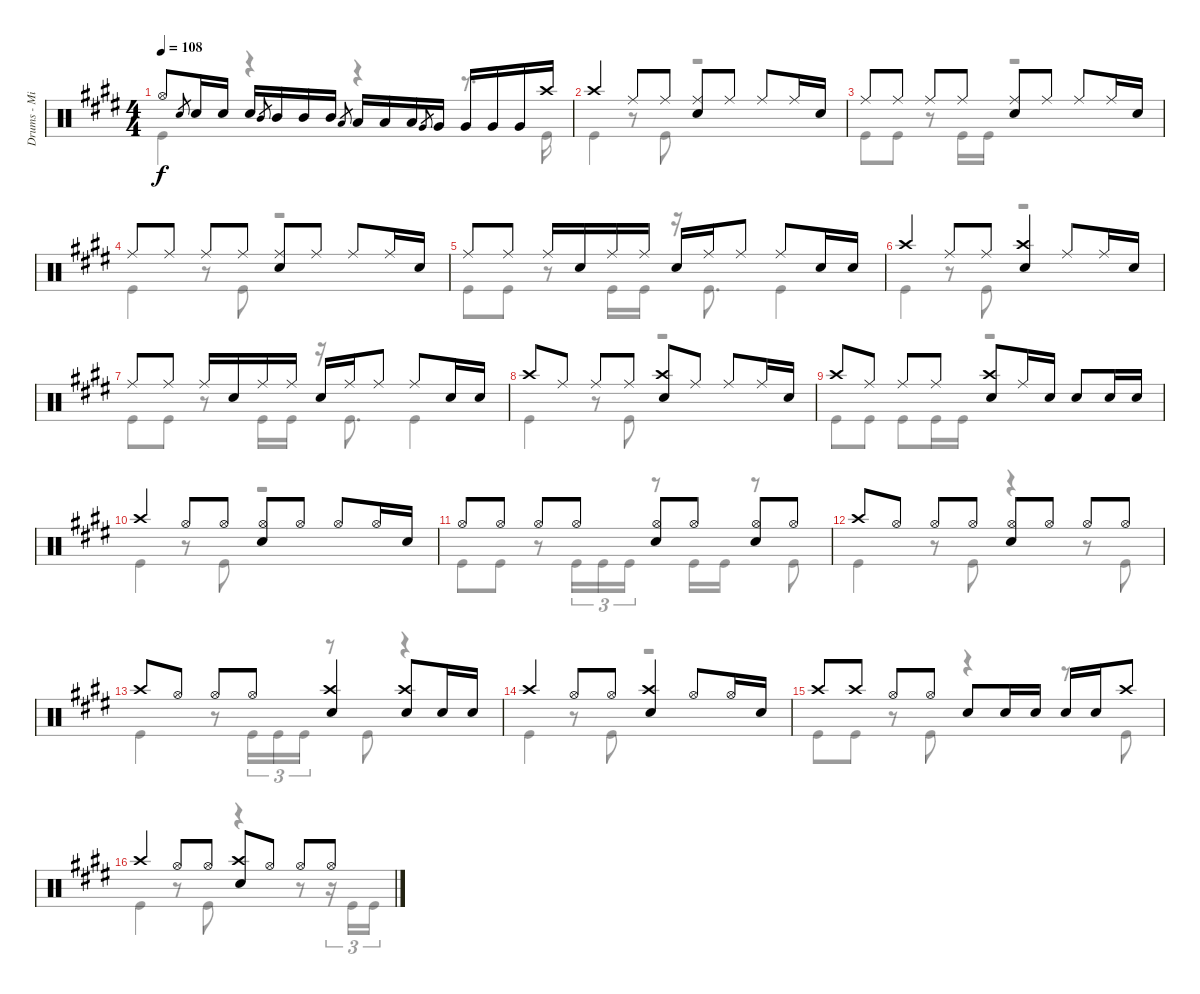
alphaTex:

\track ("Drums - Mike Portnoy" "Drums - Mi") {instrument percussion}
\staff {score}
\articulation defaults
\voice
\ts (4 4)
\tempo 108
\clef neutral
\ks e "Hi-Hat (open)".8{dy f} "Snare (hit) 2".8{gr} "Snare (hit) 2".16 "Snare (hit) 2".16 "Snare (hit) 2".16 "Mid Tom (hit)".8{gr} "Mid Tom (hit)".16 "Mid Tom (hit)".16 "Mid Tom (hit)".16 "Low Tom (hit)".8{gr} "Low Tom (hit)".16 "Low Tom (hit)".16 "Low Tom (hit)".16 "Very Low Tom (hit)".8{gr} "Very Low Tom (hit)".16 "Very Low Tom (hit)".16 "Very Low Tom (hit)".16 "Very Low Tom (hit)".16 "Crash high (hit)".16
|
"Crash high (hit)".4 "Ride (middle)".8 "Ride (middle)".8 ("Ride (middle)" "Snare (hit) 2").8 "Ride (middle)".8 "Ride (middle)".8 "Ride (middle)".16 "Snare (hit) 2".16 |
"Ride (middle)".8 "Ride (middle)".8 "Ride (middle)".8 "Ride (middle)".8 ("Ride (middle)" "Snare (hit) 2").8 "Ride (middle)".8 "Ride (middle)".8 "Ride (middle)".16 "Snare (hit) 2".16 |
"Ride (middle)".8 "Ride (middle)".8 "Ride (middle)".8 "Ride (middle)".8 ("Ride (middle)" "Snare (hit) 2").8 "Ride (middle)".8 "Ride (middle)".8 "Ride (middle)".16 "Snare (hit) 2".16 |
"Ride (middle)".8 "Ride (middle)".8 "Ride (middle)".16 "Snare (hit) 2".16 "Ride (middle)".16 "Ride (middle)".16 "Snare (hit) 2".16 "Ride (middle)".16 "Ride (middle)".8 "Ride (middle)".8 "Snare (hit) 2".16 "Snare (hit) 2".16 |
"Crash high (hit)".4 "Ride (middle)".8 "Ride (middle)".8 ("Crash high (hit)" "Snare (hit) 2").4 "Ride (middle)".8 "Ride (middle)".16 "Snare (hit) 2".16 |
"Ride (middle)".8 "Ride (middle)".8 "Ride (middle)".16 "Snare (hit) 2".16 "Ride (middle)".16 "Ride (middle)".16 "Snare (hit) 2".16 "Ride (middle)".16 "Ride (middle)".8 "Ride (middle)".8 "Snare (hit) 2".16 "Snare (hit) 2".16 |
"Crash high (hit)".8 "Ride (middle)".8 "Ride (middle)".8 "Ride (middle)".8 ("Crash high (hit)" "Snare (hit) 2").8 "Ride (middle)".8 "Ride (middle)".8 "Ride (middle)".16 "Snare (hit) 2".16 |
"Crash high (hit)".8 "Ride (middle)".8 "Ride (middle)".8 "Ride (middle)".8 ("Crash high (hit)" "Snare (hit) 2").8 "Ride (middle)".16 "Snare (hit) 2".16 "Snare (hit) 2".8 "Snare (hit) 2".16 "Snare (hit) 2".16 |
"Crash high (hit)".4 "Hi-Hat (open)".8 "Hi-Hat (open)".8 ("Hi-Hat (open)" "Snare (hit) 2").8 "Hi-Hat (open)".8 "Hi-Hat (open)".8 "Hi-Hat (open)".16 "Snare (hit) 2".16 |
"Hi-Hat (open)".8 "Hi-Hat (open)".8 "Hi-Hat (open)".8 "Hi-Hat (open)".8 ("Hi-Hat (open)" "Snare (hit) 2").8 "Hi-Hat (open)".8 ("Hi-Hat (open)" "Snare (hit) 2").8 "Hi-Hat (open)".8 |
"Crash high (hit)".8 "Hi-Hat (open)".8 "Hi-Hat (open)".8 "Hi-Hat (open)".8 ("Hi-Hat (open)" "Snare (hit) 2").8 "Hi-Hat (open)".8 "Hi-Hat (open)".8 "Hi-Hat (open)".8 |
"Crash high (hit)".8 "Hi-Hat (open)".8 "Hi-Hat (open)".8 "Hi-Hat (open)".8 ("Crash high (hit)" "Snare (hit) 2").4 ("Crash high (hit)" "Snare (hit) 2").8 "Snare (hit) 2".16 "Snare (hit) 2".16 |
"Crash high (hit)".4 "Hi-Hat (open)".8 "Hi-Hat (open)".8 ("Crash high (hit)" "Snare (hit) 2").4 "Hi-Hat (open)".8 "Hi-Hat (open)".16 "Snare (hit) 2".16 |
"Crash high (hit)".8 "Crash high (hit)".8 "Hi-Hat (open)".8 "Hi-Hat (open)".8 "Snare (hit) 2".8 "Snare (hit) 2".16 "Snare (hit) 2".16 "Snare (hit) 2".16 "Snare (hit) 2".16 "Crash high (hit)".8 |
"Crash high (hit)".4 "Hi-Hat (open)".8 "Hi-Hat (open)".8 ("Crash high (hit)" "Snare (hit) 2").8 "Hi-Hat (open)".8 "Hi-Hat (open)".8 "Hi-Hat (open)".8
\voice
\clef neutral
\ottava regular
\simile none
\ks e "Kick (hit)".4{dy f}
r.4 r.4 r.8{d} "Kick (hit)".16 |
"Kick (hit)".4 r.8 "Kick (hit)".8 r.2 |
"Kick (hit)".8 "Kick (hit)".8 r.8 "Kick (hit)".16 "Kick (hit)".16 r.2 |
"Kick (hit)".4 r.8 "Kick (hit)".8 r.2 |
"Kick (hit)".8 "Kick (hit)".8 r.8 "Kick (hit)".16 "Kick (hit)".16 r.16 "Kick (hit)".8{d} "Kick (hit)".4 |
"Kick (hit)".4 r.8 "Kick (hit)".8 r.2 |
"Kick (hit)".8 "Kick (hit)".8 r.8 "Kick (hit)".16 "Kick (hit)".16 r.16 "Kick (hit)".8{d} "Kick (hit)".4 |
"Kick (hit)".4 r.8 "Kick (hit)".8 r.2 |
"Kick (hit)".8 "Kick (hit)".8 "Kick (hit)".8 "Kick (hit)".16 "Kick (hit)".16 r.2 |
"Kick (hit)".4 r.8 "Kick (hit)".8 r.2 |
"Kick (hit)".8 "Kick (hit)".8 r.8 "Kick (hit)".16{tu (3 2)} "Kick (hit)".16{tu (3 2)} "Kick (hit)".16{tu (3 2)} r.8 "Kick (hit)".16 "Kick (hit)".16 r.8 "Kick (hit)".8 |
"Kick (hit)".4 r.8 "Kick (hit)".8 r.4 r.8 "Kick (hit)".8 |
"Kick (hit)".4 r.8 "Kick (hit)".16{tu (3 2)} "Kick (hit)".16{tu (3 2)} "Kick (hit)".16{tu (3 2)} r.8 "Kick (hit)".8 r.4 |
"Kick (hit)".4 r.8 "Kick (hit)".8 r.2 |
"Kick (hit)".8 "Kick (hit)".8 r.8 "Kick (hit)".8 r.4 r.8 "Kick (hit)".8 |
"Kick (hit)".4 r.8 "Kick (hit)".8 r.4 r.8 r.16{tu (3 2)} "Kick (hit)".16{tu (3 2)} "Kick (hit)".16{tu (3 2)}
